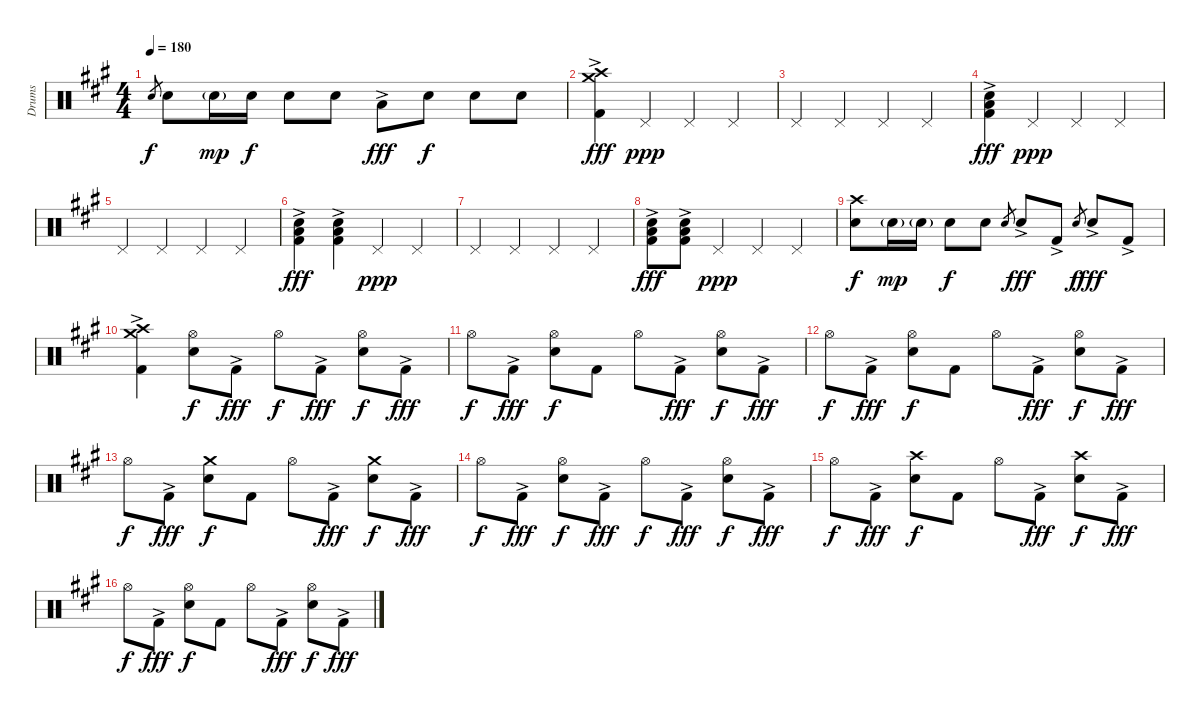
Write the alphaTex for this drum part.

\track ("Drums" "Drums") {instrument percussion}
\staff {score}
\articulation defaults
\ts (4 4)
\tempo 180
\clef neutral
\ks f#minor "Snare (hit) 2".8{gr dy f} "Snare (hit) 2".8 "Snare (hit) 2"{g}.16{dy mp} "Snare (hit) 2".16{dy f} "Snare (hit) 2".8 "Snare (hit) 2".8 "Low Tom (hit)"{ac}.8{dy fff} "Snare (hit) 2".8{dy f} "Snare (hit) 2".8 "Snare (hit) 2".8
|
("Crash high (hit)" "Crash medium (hit)" "Kick (hit) 2"{ac}).4{dy fff} "Pedal Hi-Hat (hit)".4{dy ppp} "Pedal Hi-Hat (hit)".4 "Pedal Hi-Hat (hit)".4 |
"Pedal Hi-Hat (hit)".4 "Pedal Hi-Hat (hit)".4 "Pedal Hi-Hat (hit)".4 "Pedal Hi-Hat (hit)".4 |
("Snare (hit) 2" "Low Floor Tom (hit)" "Kick (hit) 2"{ac}).4{dy fff} "Pedal Hi-Hat (hit)".4{dy ppp} "Pedal Hi-Hat (hit)".4 "Pedal Hi-Hat (hit)".4 |
"Pedal Hi-Hat (hit)".4 "Pedal Hi-Hat (hit)".4 "Pedal Hi-Hat (hit)".4 "Pedal Hi-Hat (hit)".4 |
("Snare (hit) 2" "Low Floor Tom (hit)" "Kick (hit) 2"{ac}).4{dy fff} ("Snare (hit) 2" "Low Floor Tom (hit)" "Kick (hit) 2"{ac}).4 "Pedal Hi-Hat (hit)".4{dy ppp} "Pedal Hi-Hat (hit)".4 |
"Pedal Hi-Hat (hit)".4 "Pedal Hi-Hat (hit)".4 "Pedal Hi-Hat (hit)".4 "Pedal Hi-Hat (hit)".4 |
("Snare (hit) 2" "Low Floor Tom (hit)" "Kick (hit) 2"{ac}).8{dy fff} ("Snare (hit) 2" "Low Floor Tom (hit)" "Kick (hit) 2"{ac}).8 "Pedal Hi-Hat (hit)".4{dy ppp} "Pedal Hi-Hat (hit)".4 "Pedal Hi-Hat (hit)".4 |
("Crash high (hit)" "Snare (hit) 2").8{dy f} "Snare (hit) 2"{g}.16{dy mp} "Snare (hit) 2"{g}.16 "Snare (hit) 2".8{dy f} "Snare (hit) 2".8 "Snare (hit) 2".8{gr} "Snare (hit) 2"{ac}.8{dy fff} "Kick (hit) 2"{ac}.8 "Snare (hit) 2".8{gr dy f} "Snare (hit) 2"{ac}.8{dy fff} "Kick (hit) 2"{ac}.8 |
("Crash high (hit)" "Crash medium (hit)" "Kick (hit) 2"{ac}).4 ("Hi-Hat (open)" "Snare (hit) 2").8{dy f} "Kick (hit) 2"{ac}.8{dy fff} "Hi-Hat (open)".8{dy f} "Kick (hit) 2"{ac}.8{dy fff} ("Hi-Hat (open)" "Snare (hit) 2").8{dy f} "Kick (hit) 2"{ac}.8{dy fff} |
"Hi-Hat (open)".8{dy f} "Kick (hit) 2"{ac}.8{dy fff} ("Hi-Hat (open)" "Snare (hit) 2").8{dy f} "Kick (hit) 2".8 "Hi-Hat (open)".8 "Kick (hit) 2"{ac}.8{dy fff} ("Hi-Hat (open)" "Snare (hit) 2").8{dy f} "Kick (hit) 2"{ac}.8{dy fff} |
"Hi-Hat (open)".8{dy f} "Kick (hit) 2"{ac}.8{dy fff} ("Hi-Hat (open)" "Snare (hit) 2").8{dy f} "Kick (hit) 2".8 "Hi-Hat (open)".8 "Kick (hit) 2"{ac}.8{dy fff} ("Hi-Hat (open)" "Snare (hit) 2").8{dy f} "Kick (hit) 2"{ac}.8{dy fff} |
"Hi-Hat (open)".8{dy f} "Kick (hit) 2"{ac}.8{dy fff} ("Crash medium (hit)" "Snare (hit) 2").8{dy f} "Kick (hit) 2".8 "Hi-Hat (open)".8 "Kick (hit) 2"{ac}.8{dy fff} ("Crash medium (hit)" "Snare (hit) 2").8{dy f} "Kick (hit) 2"{ac}.8{dy fff} |
"Hi-Hat (open)".8{dy f} "Kick (hit) 2"{ac}.8{dy fff} ("Hi-Hat (open)" "Snare (hit) 2").8{dy f} "Kick (hit) 2"{ac}.8{dy fff} "Hi-Hat (open)".8{dy f} "Kick (hit) 2"{ac}.8{dy fff} ("Hi-Hat (open)" "Snare (hit) 2").8{dy f} "Kick (hit) 2"{ac}.8{dy fff} |
"Hi-Hat (open)".8{dy f} "Kick (hit) 2"{ac}.8{dy fff} ("Crash high (hit)" "Snare (hit) 2").8{dy f} "Kick (hit) 2".8 "Hi-Hat (open)".8 "Kick (hit) 2"{ac}.8{dy fff} ("Crash high (hit)" "Snare (hit) 2").8{dy f} "Kick (hit) 2"{ac}.8{dy fff} |
"Hi-Hat (open)".8{dy f} "Kick (hit) 2"{ac}.8{dy fff} ("Hi-Hat (open)" "Snare (hit) 2").8{dy f} "Kick (hit) 2".8 "Hi-Hat (open)".8 "Kick (hit) 2"{ac}.8{dy fff} ("Hi-Hat (open)" "Snare (hit) 2").8{dy f} "Kick (hit) 2"{ac}.8{dy fff}
